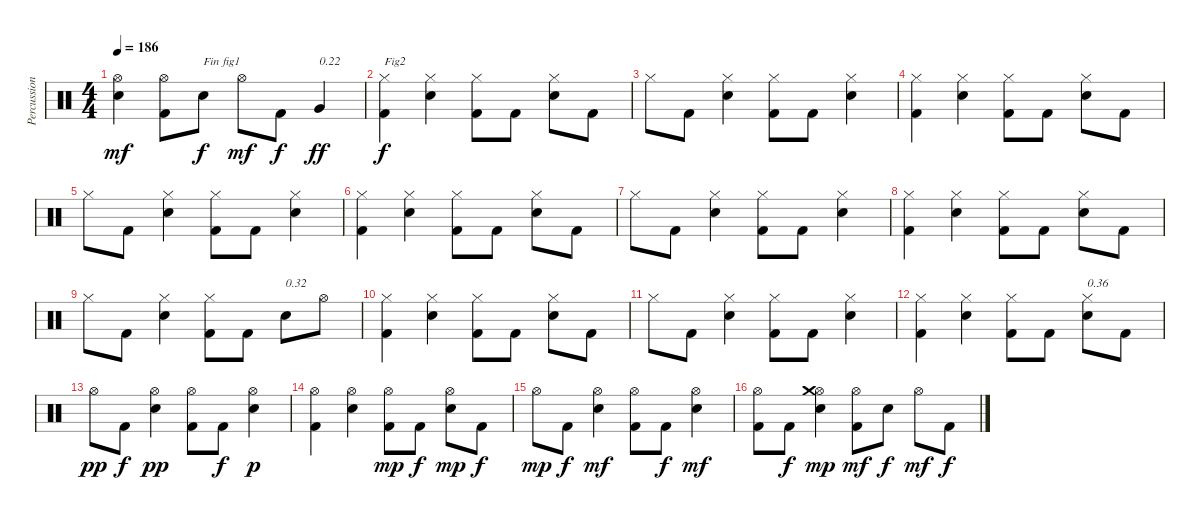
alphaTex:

\track ("Percussions" "Percussion") {instrument percussion}
\staff {score}
\articulation defaults
\ts (4 4)
\tempo 186
\clef neutral
\ks c
("Electric Snare (hit)" "Hi-Hat (open)").4{dy mf} ("Kick (hit) 2" "Hi-Hat (open)").8 "Electric Snare (hit)".8{txt "Fin fig1" dy f} "Hi-Hat (open)".8{dy mf} "Kick (hit) 2".8{dy f} "Very Low Tom (hit)".4{txt "0.22" dy ff} |
("Kick (hit) 2" "Hi-Hat (closed)").4{txt "Fig2" dy f} ("Electric Snare (hit)" "Hi-Hat (closed)").4 ("Kick (hit) 2" "Hi-Hat (closed)").8 "Kick (hit) 2".8 ("Electric Snare (hit)" "Hi-Hat (closed)").8 "Kick (hit) 2".8 |
"Hi-Hat (closed)".8 "Kick (hit) 2".8 ("Electric Snare (hit)" "Hi-Hat (closed)").4 ("Kick (hit) 2" "Hi-Hat (closed)").8 "Kick (hit) 2".8 ("Electric Snare (hit)" "Hi-Hat (closed)").4 |
("Kick (hit) 2" "Hi-Hat (closed)").4 ("Electric Snare (hit)" "Hi-Hat (closed)").4 ("Kick (hit) 2" "Hi-Hat (closed)").8 "Kick (hit) 2".8 ("Electric Snare (hit)" "Hi-Hat (closed)").8 "Kick (hit) 2".8 |
"Hi-Hat (closed)".8 "Kick (hit) 2".8 ("Electric Snare (hit)" "Hi-Hat (closed)").4 ("Kick (hit) 2" "Hi-Hat (closed)").8 "Kick (hit) 2".8 ("Electric Snare (hit)" "Hi-Hat (closed)").4 |
("Kick (hit) 2" "Hi-Hat (closed)").4 ("Electric Snare (hit)" "Hi-Hat (closed)").4 ("Kick (hit) 2" "Hi-Hat (closed)").8 "Kick (hit) 2".8 ("Electric Snare (hit)" "Hi-Hat (closed)").8 "Kick (hit) 2".8 |
"Hi-Hat (closed)".8 "Kick (hit) 2".8 ("Electric Snare (hit)" "Hi-Hat (closed)").4 ("Kick (hit) 2" "Hi-Hat (closed)").8 "Kick (hit) 2".8 ("Electric Snare (hit)" "Hi-Hat (closed)").4 |
("Kick (hit) 2" "Hi-Hat (closed)").4 ("Electric Snare (hit)" "Hi-Hat (closed)").4 ("Kick (hit) 2" "Hi-Hat (closed)").8 "Kick (hit) 2".8 ("Electric Snare (hit)" "Hi-Hat (closed)").8 "Kick (hit) 2".8 |
"Hi-Hat (closed)".8 "Kick (hit) 2".8 ("Electric Snare (hit)" "Hi-Hat (closed)").4 ("Kick (hit) 2" "Hi-Hat (closed)").8 "Kick (hit) 2".8 "Electric Snare (hit)".8{txt "0.32"} "Hi-Hat (open)".8 |
("Kick (hit) 2" "Hi-Hat (closed)").4 ("Electric Snare (hit)" "Hi-Hat (closed)").4 ("Kick (hit) 2" "Hi-Hat (closed)").8 "Kick (hit) 2".8 ("Electric Snare (hit)" "Hi-Hat (closed)").8 "Kick (hit) 2".8 |
"Hi-Hat (closed)".8 "Kick (hit) 2".8 ("Electric Snare (hit)" "Hi-Hat (closed)").4 ("Kick (hit) 2" "Hi-Hat (closed)").8 "Kick (hit) 2".8 ("Electric Snare (hit)" "Hi-Hat (closed)").4 |
("Kick (hit) 2" "Hi-Hat (closed)").4 ("Electric Snare (hit)" "Hi-Hat (closed)").4 ("Kick (hit) 2" "Hi-Hat (closed)").8 "Kick (hit) 2".8 ("Electric Snare (hit)" "Hi-Hat (closed)").8{txt "0.36"} "Kick (hit) 2".8 |
"Hi-Hat (open)".8{dy pp} "Kick (hit) 2".8{dy f} ("Electric Snare (hit)" "Hi-Hat (open)").4{dy pp} ("Kick (hit) 2" "Hi-Hat (open)").8 "Kick (hit) 2".8{dy f} ("Electric Snare (hit)" "Hi-Hat (open)").4{dy p} |
("Kick (hit) 2" "Hi-Hat (open)").4 ("Electric Snare (hit)" "Hi-Hat (open)").4 ("Kick (hit) 2" "Hi-Hat (open)").8{dy mp} "Kick (hit) 2".8{dy f} ("Electric Snare (hit)" "Hi-Hat (open)").8{dy mp} "Kick (hit) 2".8{dy f} |
"Hi-Hat (open)".8{dy mp} "Kick (hit) 2".8{dy f} ("Electric Snare (hit)" "Hi-Hat (open)").4{dy mf} ("Kick (hit) 2" "Hi-Hat (open)").8 "Kick (hit) 2".8{dy f} ("Electric Snare (hit)" "Hi-Hat (open)").4{dy mf} |
("Kick (hit) 2" "Hi-Hat (open)").8 "Kick (hit) 2".8{dy f} ("Electric Snare (hit)" "Hi-Hat (open)" "Crash medium (hit)").4{dy mp} ("Kick (hit) 2" "Hi-Hat (open)").8{dy mf} "Electric Snare (hit)".8{dy f} "Hi-Hat (open)".8{dy mf} "Kick (hit) 2".8{dy f}
